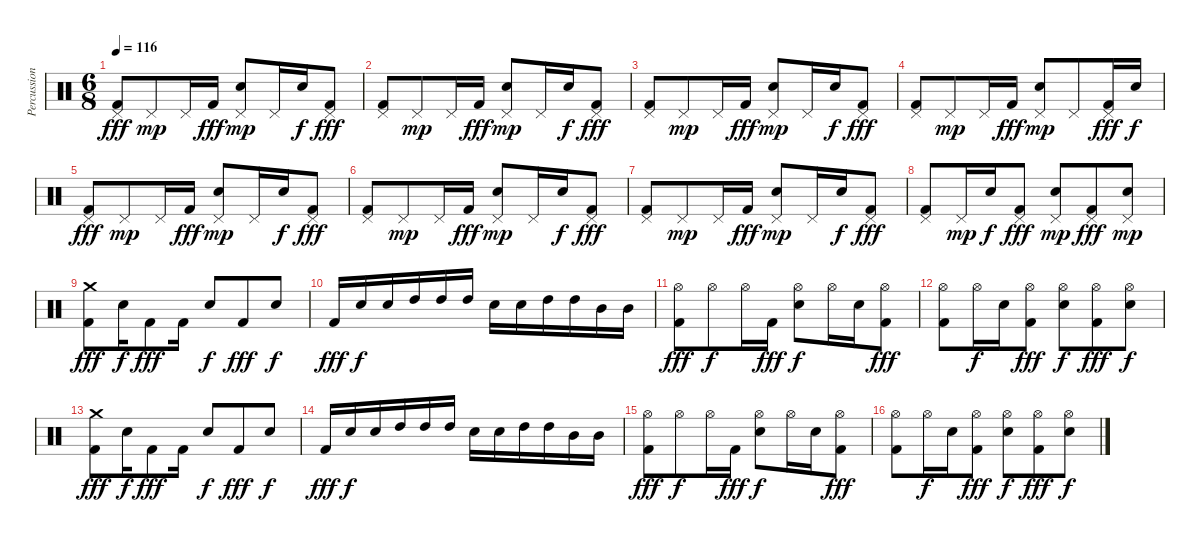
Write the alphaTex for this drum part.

\track ("Percussions" "Percussion") {instrument percussion}
\staff {score}
\articulation defaults
\ts (6 8)
\tempo 116
\clef neutral
\ks c
("Pedal Hi-Hat (hit)" "Kick (hit) 2").8{dy fff} "Pedal Hi-Hat (hit)".8{dy mp} "Pedal Hi-Hat (hit)".16 "Kick (hit) 2".16{dy fff} ("Pedal Hi-Hat (hit)" "Snare (hit) 2").8{dy mp} "Pedal Hi-Hat (hit)".16 "Snare (hit) 2".16{dy f} ("Pedal Hi-Hat (hit)" "Kick (hit) 2").8{dy fff} |
("Pedal Hi-Hat (hit)" "Kick (hit) 2").8 "Pedal Hi-Hat (hit)".8{dy mp} "Pedal Hi-Hat (hit)".16 "Kick (hit) 2".16{dy fff} ("Pedal Hi-Hat (hit)" "Snare (hit) 2").8{dy mp} "Pedal Hi-Hat (hit)".16 "Snare (hit) 2".16{dy f} ("Pedal Hi-Hat (hit)" "Kick (hit) 2").8{dy fff} |
("Pedal Hi-Hat (hit)" "Kick (hit) 2").8 "Pedal Hi-Hat (hit)".8{dy mp} "Pedal Hi-Hat (hit)".16 "Kick (hit) 2".16{dy fff} ("Pedal Hi-Hat (hit)" "Snare (hit) 2").8{dy mp} "Pedal Hi-Hat (hit)".16 "Snare (hit) 2".16{dy f} ("Pedal Hi-Hat (hit)" "Kick (hit) 2").8{dy fff} |
("Pedal Hi-Hat (hit)" "Kick (hit) 2").8 "Pedal Hi-Hat (hit)".8{dy mp} "Pedal Hi-Hat (hit)".16 "Kick (hit) 2".16{dy fff} ("Pedal Hi-Hat (hit)" "Snare (hit) 2").8{dy mp} "Pedal Hi-Hat (hit)".8 ("Pedal Hi-Hat (hit)" "Kick (hit) 2").16{dy fff} "Snare (hit) 2".16{dy f} |
("Pedal Hi-Hat (hit)" "Kick (hit) 2").8{dy fff} "Pedal Hi-Hat (hit)".8{dy mp} "Pedal Hi-Hat (hit)".16 "Kick (hit) 2".16{dy fff} ("Pedal Hi-Hat (hit)" "Snare (hit) 2").8{dy mp} "Pedal Hi-Hat (hit)".16 "Snare (hit) 2".16{dy f} ("Pedal Hi-Hat (hit)" "Kick (hit) 2").8{dy fff} |
("Pedal Hi-Hat (hit)" "Kick (hit) 2").8 "Pedal Hi-Hat (hit)".8{dy mp} "Pedal Hi-Hat (hit)".16 "Kick (hit) 2".16{dy fff} ("Pedal Hi-Hat (hit)" "Snare (hit) 2").8{dy mp} "Pedal Hi-Hat (hit)".16 "Snare (hit) 2".16{dy f} ("Pedal Hi-Hat (hit)" "Kick (hit) 2").8{dy fff} |
("Pedal Hi-Hat (hit)" "Kick (hit) 2").8 "Pedal Hi-Hat (hit)".8{dy mp} "Pedal Hi-Hat (hit)".16 "Kick (hit) 2".16{dy fff} ("Pedal Hi-Hat (hit)" "Snare (hit) 2").8{dy mp} "Pedal Hi-Hat (hit)".16 "Snare (hit) 2".16{dy f} ("Pedal Hi-Hat (hit)" "Kick (hit) 2").8{dy fff} |
("Pedal Hi-Hat (hit)" "Kick (hit) 2").8 "Pedal Hi-Hat (hit)".16{dy mp} "Snare (hit) 2".16{dy f} ("Pedal Hi-Hat (hit)" "Kick (hit) 2").8{dy fff} ("Pedal Hi-Hat (hit)" "Snare (hit) 2").8{dy mp} ("Pedal Hi-Hat (hit)" "Kick (hit) 2").8{dy fff} ("Pedal Hi-Hat (hit)" "Snare (hit) 2").8{dy mp} |
("Crash medium (hit)" "Kick (hit) 2").8{dy fff} "Snare (hit) 2".16{dy f} "Kick (hit) 2".8{dy fff} "Kick (hit) 2".16 "Snare (hit) 2".8{dy f} "Kick (hit) 2".8{dy fff} "Snare (hit) 2".8{dy f} |
"Kick (hit) 2".16{dy fff} "Snare (hit) 2".16{dy f} "Snare (hit) 2".16 "High Tom (hit)".16 "High Tom (hit)".16 "High Tom (hit)".16 "Snare (hit) 2".16 "Snare (hit) 2".16 "High Tom (hit)".16 "High Tom (hit)".16 "Mid Tom (hit)".16 "Mid Tom (hit)".16 |
("Hi-Hat (open)" "Kick (hit) 2").8{dy fff} "Hi-Hat (open)".8{dy f} "Hi-Hat (open)".16 "Kick (hit) 2".16{dy fff} ("Hi-Hat (open)" "Snare (hit) 2").8{dy f} "Hi-Hat (open)".16 "Snare (hit) 2".16 ("Hi-Hat (open)" "Kick (hit) 2").8{dy fff} |
("Hi-Hat (open)" "Kick (hit) 2").8 "Hi-Hat (open)".16{dy f} "Snare (hit) 2".16 ("Hi-Hat (open)" "Kick (hit) 2").8{dy fff} ("Hi-Hat (open)" "Snare (hit) 2").8{dy f} ("Hi-Hat (open)" "Kick (hit) 2").8{dy fff} ("Hi-Hat (open)" "Snare (hit) 2").8{dy f} |
("Crash medium (hit)" "Kick (hit) 2").8{dy fff} "Snare (hit) 2".16{dy f} "Kick (hit) 2".8{dy fff} "Kick (hit) 2".16 "Snare (hit) 2".8{dy f} "Kick (hit) 2".8{dy fff} "Snare (hit) 2".8{dy f} |
"Kick (hit) 2".16{dy fff} "Snare (hit) 2".16{dy f} "Snare (hit) 2".16 "High Tom (hit)".16 "High Tom (hit)".16 "High Tom (hit)".16 "Snare (hit) 2".16 "Snare (hit) 2".16 "High Tom (hit)".16 "High Tom (hit)".16 "Mid Tom (hit)".16 "Mid Tom (hit)".16 |
("Hi-Hat (open)" "Kick (hit) 2").8{dy fff} "Hi-Hat (open)".8{dy f} "Hi-Hat (open)".16 "Kick (hit) 2".16{dy fff} ("Hi-Hat (open)" "Snare (hit) 2").8{dy f} "Hi-Hat (open)".16 "Snare (hit) 2".16 ("Hi-Hat (open)" "Kick (hit) 2").8{dy fff} |
("Hi-Hat (open)" "Kick (hit) 2").8 "Hi-Hat (open)".16{dy f} "Snare (hit) 2".16 ("Hi-Hat (open)" "Kick (hit) 2").8{dy fff} ("Hi-Hat (open)" "Snare (hit) 2").8{dy f} ("Hi-Hat (open)" "Kick (hit) 2").8{dy fff} ("Hi-Hat (open)" "Snare (hit) 2").8{dy f}
